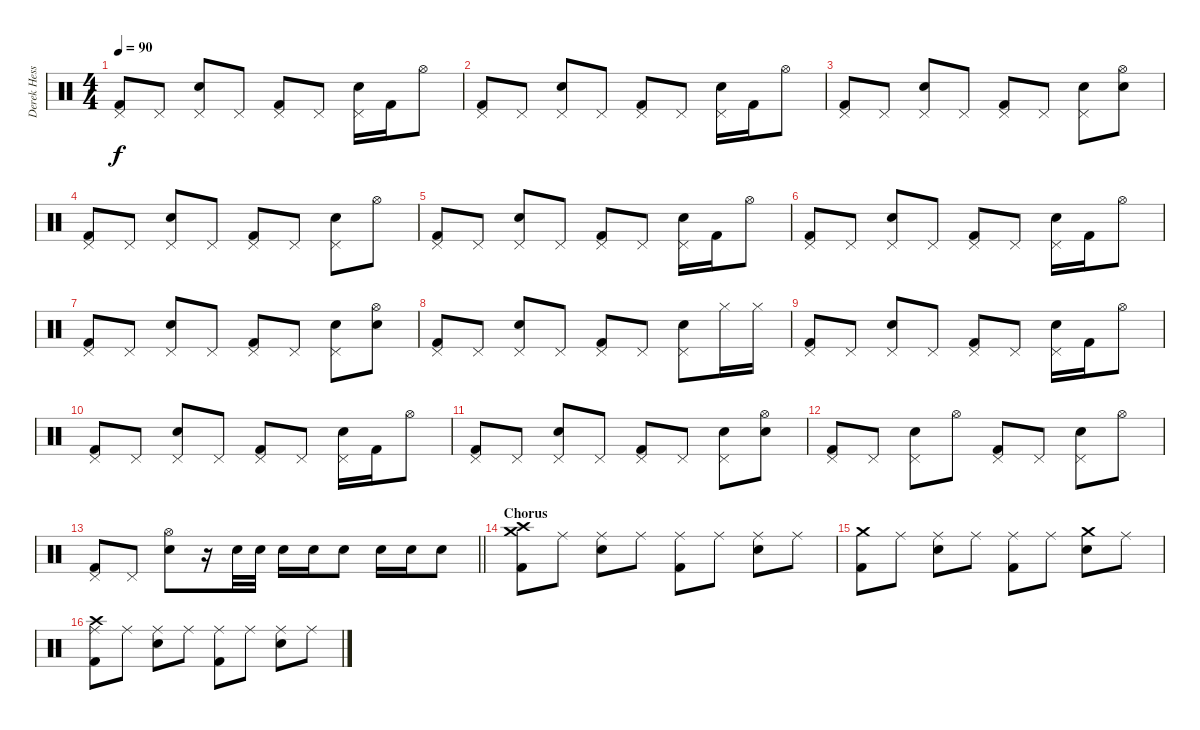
\track ("Derek Hess (Drums and Percussion)" "Derek Hess") {instrument percussion}
\staff {score}
\articulation defaults
\ts (4 4)
\tempo 90
\clef neutral
\ks c
("Pedal Hi-Hat (hit)" "Kick (hit) 2").8{dy f} "Pedal Hi-Hat (hit)".8 ("Snare (hit) 2" "Pedal Hi-Hat (hit)").8 "Pedal Hi-Hat (hit)".8 ("Pedal Hi-Hat (hit)" "Kick (hit) 2").8 "Pedal Hi-Hat (hit)".8 ("Snare (hit) 2" "Pedal Hi-Hat (hit)").16 "Kick (hit) 2".16 "Hi-Hat (open)".8 |
("Pedal Hi-Hat (hit)" "Kick (hit) 2").8 "Pedal Hi-Hat (hit)".8 ("Snare (hit) 2" "Pedal Hi-Hat (hit)").8 "Pedal Hi-Hat (hit)".8 ("Pedal Hi-Hat (hit)" "Kick (hit) 2").8 "Pedal Hi-Hat (hit)".8 ("Snare (hit) 2" "Pedal Hi-Hat (hit)").16 "Kick (hit) 2".16 "Hi-Hat (open)".8 |
("Pedal Hi-Hat (hit)" "Kick (hit) 2").8 "Pedal Hi-Hat (hit)".8 ("Snare (hit) 2" "Pedal Hi-Hat (hit)").8 "Pedal Hi-Hat (hit)".8 ("Pedal Hi-Hat (hit)" "Kick (hit) 2").8 "Pedal Hi-Hat (hit)".8 ("Snare (hit) 2" "Pedal Hi-Hat (hit)").8 ("Snare (hit) 2" "Hi-Hat (open)").8 |
("Pedal Hi-Hat (hit)" "Kick (hit) 2").8 "Pedal Hi-Hat (hit)".8 ("Snare (hit) 2" "Pedal Hi-Hat (hit)").8 "Pedal Hi-Hat (hit)".8 ("Pedal Hi-Hat (hit)" "Kick (hit) 2").8 "Pedal Hi-Hat (hit)".8 ("Snare (hit) 2" "Pedal Hi-Hat (hit)").8 "Hi-Hat (open)".8 |
("Pedal Hi-Hat (hit)" "Kick (hit) 2").8 "Pedal Hi-Hat (hit)".8 ("Snare (hit) 2" "Pedal Hi-Hat (hit)").8 "Pedal Hi-Hat (hit)".8 ("Pedal Hi-Hat (hit)" "Kick (hit) 2").8 "Pedal Hi-Hat (hit)".8 ("Snare (hit) 2" "Pedal Hi-Hat (hit)").16 "Kick (hit) 2".16 "Hi-Hat (open)".8 |
("Pedal Hi-Hat (hit)" "Kick (hit) 2").8 "Pedal Hi-Hat (hit)".8 ("Snare (hit) 2" "Pedal Hi-Hat (hit)").8 "Pedal Hi-Hat (hit)".8 ("Pedal Hi-Hat (hit)" "Kick (hit) 2").8 "Pedal Hi-Hat (hit)".8 ("Snare (hit) 2" "Pedal Hi-Hat (hit)").16 "Kick (hit) 2".16 "Hi-Hat (open)".8 |
("Pedal Hi-Hat (hit)" "Kick (hit) 2").8 "Pedal Hi-Hat (hit)".8 ("Snare (hit) 2" "Pedal Hi-Hat (hit)").8 "Pedal Hi-Hat (hit)".8 ("Pedal Hi-Hat (hit)" "Kick (hit) 2").8 "Pedal Hi-Hat (hit)".8 ("Snare (hit) 2" "Pedal Hi-Hat (hit)").8 ("Snare (hit) 2" "Hi-Hat (open)").8 |
("Pedal Hi-Hat (hit)" "Kick (hit) 2").8 "Pedal Hi-Hat (hit)".8 ("Snare (hit) 2" "Pedal Hi-Hat (hit)").8 "Pedal Hi-Hat (hit)".8 ("Pedal Hi-Hat (hit)" "Kick (hit) 2").8 "Pedal Hi-Hat (hit)".8 ("Snare (hit) 2" "Pedal Hi-Hat (hit)").8 "Hi-Hat (closed)".16 "Hi-Hat (closed)".16 |
("Pedal Hi-Hat (hit)" "Kick (hit) 2").8 "Pedal Hi-Hat (hit)".8 ("Snare (hit) 2" "Pedal Hi-Hat (hit)").8 "Pedal Hi-Hat (hit)".8 ("Pedal Hi-Hat (hit)" "Kick (hit) 2").8 "Pedal Hi-Hat (hit)".8 ("Snare (hit) 2" "Pedal Hi-Hat (hit)").16 "Kick (hit) 2".16 "Hi-Hat (open)".8 |
("Pedal Hi-Hat (hit)" "Kick (hit) 2").8 "Pedal Hi-Hat (hit)".8 ("Snare (hit) 2" "Pedal Hi-Hat (hit)").8 "Pedal Hi-Hat (hit)".8 ("Pedal Hi-Hat (hit)" "Kick (hit) 2").8 "Pedal Hi-Hat (hit)".8 ("Snare (hit) 2" "Pedal Hi-Hat (hit)").16 "Kick (hit) 2".16 "Hi-Hat (open)".8 |
("Pedal Hi-Hat (hit)" "Kick (hit) 2").8 "Pedal Hi-Hat (hit)".8 ("Snare (hit) 2" "Pedal Hi-Hat (hit)").8 "Pedal Hi-Hat (hit)".8 ("Pedal Hi-Hat (hit)" "Kick (hit) 2").8 "Pedal Hi-Hat (hit)".8 ("Snare (hit) 2" "Pedal Hi-Hat (hit)").8 ("Snare (hit) 2" "Hi-Hat (open)").8 |
("Pedal Hi-Hat (hit)" "Kick (hit) 2").8 "Pedal Hi-Hat (hit)".8 ("Snare (hit) 2" "Pedal Hi-Hat (hit)").8 "Hi-Hat (open)".8 ("Pedal Hi-Hat (hit)" "Kick (hit) 2").8 "Pedal Hi-Hat (hit)".8 ("Snare (hit) 2" "Pedal Hi-Hat (hit)").8 "Hi-Hat (open)".8 |
\barLineRight lightlight
("Pedal Hi-Hat (hit)" "Kick (hit) 2").8 "Pedal Hi-Hat (hit)".8 ("Snare (hit) 2" "Hi-Hat (open)").8 r.16 "Snare (hit) 2".32 "Snare (hit) 2".32 "Snare (hit) 2".16 "Snare (hit) 2".16 "Snare (hit) 2".8 "Snare (hit) 2".16 "Snare (hit) 2".16 "Snare (hit) 2".8 |
\section ("" "Chorus")
("Crash medium (hit)" "Crash high (hit)" "Kick (hit) 2").8 "Ride (middle)".8 ("Ride (middle)" "Snare (hit) 2").8 "Ride (middle)".8 ("Ride (middle)" "Kick (hit) 2").8 "Ride (middle)".8 ("Ride (middle)" "Snare (hit) 2").8 "Ride (middle)".8 |
("Crash medium (hit)" "Kick (hit) 2").8 "Ride (middle)".8 ("Ride (middle)" "Snare (hit) 2").8 "Ride (middle)".8 ("Ride (middle)" "Kick (hit) 2").8 "Ride (middle)".8 ("Crash medium (hit)" "Snare (hit) 2").8 "Ride (middle)".8 |
("Crash high (hit)" "Ride (middle)" "Kick (hit) 2").8 "Ride (middle)".8 ("Ride (middle)" "Snare (hit) 2").8 "Ride (middle)".8 ("Ride (middle)" "Kick (hit) 2").8 "Ride (middle)".8 ("Ride (middle)" "Snare (hit) 2").8 "Ride (middle)".8
